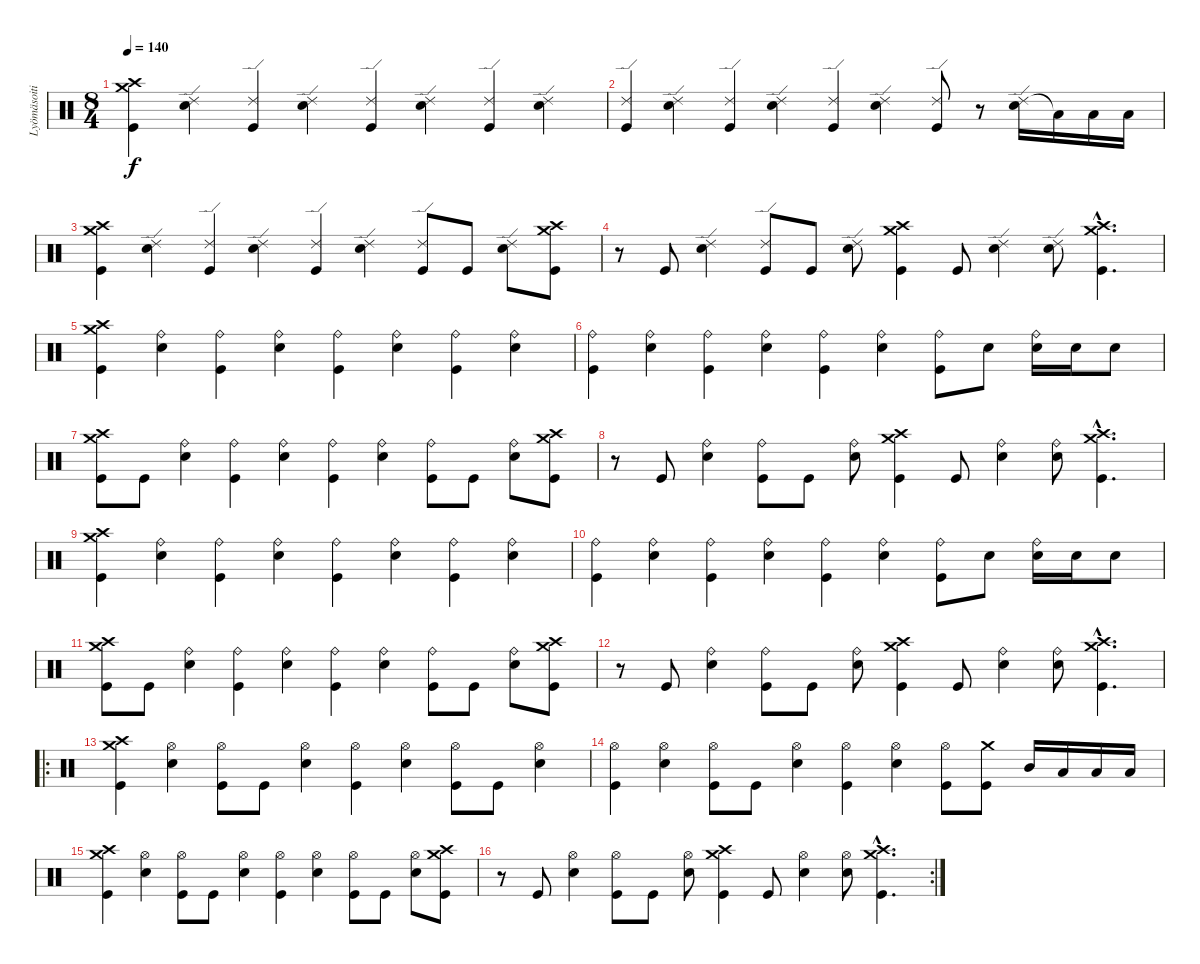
\track ("Lyömäsoitin" "Lyömäsoiti") {instrument percussion}
\staff {score}
\articulation defaults
\ts (8 4)
\tempo 140
\clef neutral
\ks c
("Crash medium (hit)" "Crash high (hit)" "Kick (hit)").4{dy f} ("Ride (edge) 2" "Snare (hit) 2").4 ("Ride (edge) 2" "Kick (hit)").4 ("Ride (edge) 2" "Snare (hit) 2").4 ("Ride (edge) 2" "Kick (hit)").4 ("Ride (edge) 2" "Snare (hit) 2").4 ("Ride (edge) 2" "Kick (hit)").4 ("Ride (edge) 2" "Snare (hit) 2").4 |
("Ride (edge) 2" "Kick (hit)").4 ("Ride (edge) 2" "Snare (hit) 2").4 ("Ride (edge) 2" "Kick (hit)").4 ("Ride (edge) 2" "Snare (hit) 2").4 ("Ride (edge) 2" "Kick (hit)").4 ("Ride (edge) 2" "Snare (hit) 2").4 ("Ride (edge) 2" "Kick (hit)").8 r.8 ("Ride (edge) 2" "Snare (hit) 2").16 "Low Tom (hit)"{t}.16 "Low Tom (hit)".16 "Low Tom (hit)".16 |
("Crash medium (hit)" "Crash high (hit)" "Kick (hit)").4 ("Ride (edge) 2" "Snare (hit) 2").4 ("Ride (edge) 2" "Kick (hit)").4 ("Ride (edge) 2" "Snare (hit) 2").4 ("Ride (edge) 2" "Kick (hit)").4 ("Ride (edge) 2" "Snare (hit) 2").4 ("Ride (edge) 2" "Kick (hit)").8 "Kick (hit)".8 ("Ride (edge) 2" "Snare (hit) 2").8 ("Crash medium (hit)" "Crash high (hit)" "Kick (hit)").8 |
r.8 "Kick (hit)".8 ("Ride (edge) 2" "Snare (hit) 2").4 ("Ride (edge) 2" "Kick (hit)").8 "Kick (hit)".8 ("Ride (edge) 2" "Snare (hit) 2").8 ("Crash medium (hit)" "Crash high (hit)" "Kick (hit)").4 "Kick (hit)".8 ("Ride (edge) 2" "Snare (hit) 2").4 ("Ride (edge) 2" "Snare (hit) 2").8 ("Crash medium (hit)"{hac} "Crash high (hit)"{hac} "Kick (hit)"{hac}).4{d} |
("Crash medium (hit)" "Crash high (hit)" "Kick (hit)").4 ("Ride (bell)" "Snare (hit) 2").4 ("Ride (bell)" "Kick (hit)").4 ("Ride (bell)" "Snare (hit) 2").4 ("Ride (bell)" "Kick (hit)").4 ("Ride (bell)" "Snare (hit) 2").4 ("Ride (bell)" "Kick (hit)").4 ("Ride (bell)" "Snare (hit) 2").4 |
("Ride (bell)" "Kick (hit)").4 ("Ride (bell)" "Snare (hit) 2").4 ("Ride (bell)" "Kick (hit)").4 ("Ride (bell)" "Snare (hit) 2").4 ("Ride (bell)" "Kick (hit)").4 ("Ride (bell)" "Snare (hit) 2").4 ("Ride (bell)" "Kick (hit)").8 "Snare (hit) 2".8 ("Ride (bell)" "Snare (hit) 2").16 "Snare (hit) 2".16 "Snare (hit) 2".8 |
("Crash medium (hit)" "Crash high (hit)" "Kick (hit)").8 "Kick (hit)".8 ("Ride (bell)" "Snare (hit) 2").4 ("Ride (bell)" "Kick (hit)").4 ("Ride (bell)" "Snare (hit) 2").4 ("Ride (bell)" "Kick (hit)").4 ("Ride (bell)" "Snare (hit) 2").4 ("Ride (bell)" "Kick (hit)").8 "Kick (hit)".8 ("Ride (bell)" "Snare (hit) 2").8 ("Crash medium (hit)" "Crash high (hit)" "Kick (hit)").8 |
r.8 "Kick (hit)".8 ("Ride (bell)" "Snare (hit) 2").4 ("Ride (bell)" "Kick (hit)").8 "Kick (hit)".8 ("Ride (bell)" "Snare (hit) 2").8 ("Crash medium (hit)" "Crash high (hit)" "Kick (hit)").4 "Kick (hit)".8 ("Ride (bell)" "Snare (hit) 2").4 ("Ride (bell)" "Snare (hit) 2").8 ("Crash medium (hit)"{hac} "Crash high (hit)"{hac} "Kick (hit)"{hac}).4{d} |
("Crash medium (hit)" "Crash high (hit)" "Kick (hit)").4 ("Ride (bell)" "Snare (hit) 2").4 ("Ride (bell)" "Kick (hit)").4 ("Ride (bell)" "Snare (hit) 2").4 ("Ride (bell)" "Kick (hit)").4 ("Ride (bell)" "Snare (hit) 2").4 ("Ride (bell)" "Kick (hit)").4 ("Ride (bell)" "Snare (hit) 2").4 |
("Ride (bell)" "Kick (hit)").4 ("Ride (bell)" "Snare (hit) 2").4 ("Ride (bell)" "Kick (hit)").4 ("Ride (bell)" "Snare (hit) 2").4 ("Ride (bell)" "Kick (hit)").4 ("Ride (bell)" "Snare (hit) 2").4 ("Ride (bell)" "Kick (hit)").8 "Snare (hit) 2".8 ("Ride (bell)" "Snare (hit) 2").16 "Snare (hit) 2".16 "Snare (hit) 2".8 |
("Crash medium (hit)" "Crash high (hit)" "Kick (hit)").8 "Kick (hit)".8 ("Ride (bell)" "Snare (hit) 2").4 ("Ride (bell)" "Kick (hit)").4 ("Ride (bell)" "Snare (hit) 2").4 ("Ride (bell)" "Kick (hit)").4 ("Ride (bell)" "Snare (hit) 2").4 ("Ride (bell)" "Kick (hit)").8 "Kick (hit)".8 ("Ride (bell)" "Snare (hit) 2").8 ("Crash medium (hit)" "Crash high (hit)" "Kick (hit)").8 |
r.8 "Kick (hit)".8 ("Ride (bell)" "Snare (hit) 2").4 ("Ride (bell)" "Kick (hit)").8 "Kick (hit)".8 ("Ride (bell)" "Snare (hit) 2").8 ("Crash medium (hit)" "Crash high (hit)" "Kick (hit)").4 "Kick (hit)".8 ("Ride (bell)" "Snare (hit) 2").4 ("Ride (bell)" "Snare (hit) 2").8 ("Crash medium (hit)"{hac} "Crash high (hit)"{hac} "Kick (hit)"{hac}).4{d} |
\ro
("Crash medium (hit)" "Crash high (hit)" "Kick (hit)").4 ("Hi-Hat (open)" "Snare (hit) 2").4 ("Hi-Hat (open)" "Kick (hit)").8 "Kick (hit)".8 ("Hi-Hat (open)" "Snare (hit) 2").4 ("Hi-Hat (open)" "Kick (hit)").4 ("Hi-Hat (open)" "Snare (hit) 2").4 ("Hi-Hat (open)" "Kick (hit)").8 "Kick (hit)".8 ("Hi-Hat (open)" "Snare (hit) 2").4 |
("Hi-Hat (open)" "Kick (hit)").4 ("Hi-Hat (open)" "Snare (hit) 2").4 ("Hi-Hat (open)" "Kick (hit)").8 "Kick (hit)".8 ("Hi-Hat (open)" "Snare (hit) 2").4 ("Hi-Hat (open)" "Kick (hit)").4 ("Hi-Hat (open)" "Snare (hit) 2").4 ("Hi-Hat (open)" "Kick (hit)").8 ("Crash medium (hit)" "Kick (hit)").8 "Mid Tom (hit)".16 "Low Tom (hit)".16 "Low Tom (hit)".16 "Low Tom (hit)".16 |
("Crash medium (hit)" "Crash high (hit)" "Kick (hit)").4 ("Hi-Hat (open)" "Snare (hit) 2").4 ("Hi-Hat (open)" "Kick (hit)").8 "Kick (hit)".8 ("Hi-Hat (open)" "Snare (hit) 2").4 ("Hi-Hat (open)" "Kick (hit)").4 ("Hi-Hat (open)" "Snare (hit) 2").4 ("Hi-Hat (open)" "Kick (hit)").8 "Kick (hit)".8 ("Hi-Hat (open)" "Snare (hit) 2").8 ("Crash medium (hit)" "Crash high (hit)" "Kick (hit)").8 |
\rc 2
r.8 "Kick (hit)".8 ("Hi-Hat (open)" "Snare (hit) 2").4 ("Hi-Hat (open)" "Kick (hit)").8 "Kick (hit)".8 ("Hi-Hat (open)" "Snare (hit) 2").8 ("Crash medium (hit)" "Crash high (hit)" "Kick (hit)").4 "Kick (hit)".8 ("Hi-Hat (open)" "Snare (hit) 2").4 ("Hi-Hat (open)" "Snare (hit) 2").8 ("Crash medium (hit)"{hac} "Crash high (hit)"{hac} "Kick (hit)"{hac}).4{d}
